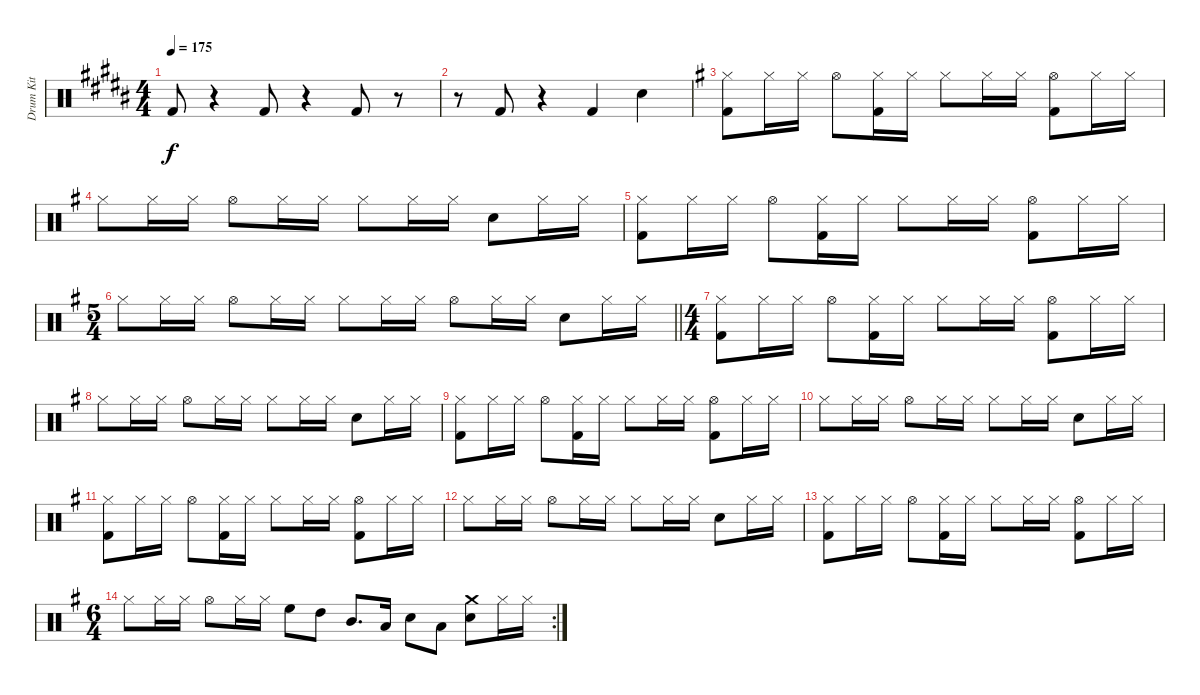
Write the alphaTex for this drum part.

\track ("Drum Kit" "Drum Kit") {instrument percussion}
\staff {score}
\articulation defaults
\ts (4 4)
\tempo 175
\clef neutral
\ks g#minor "Kick (hit) 2".8{dy f}
r.4 "Kick (hit) 2".8 r.4 "Kick (hit) 2".8 r.8 |
\ks b
r.8 "Kick (hit) 2".8 r.4 "Kick (hit) 2".4 "Snare (hit) 2".4 |
\ks g
("Hi-Hat (closed)" "Kick (hit) 2").8 "Hi-Hat (closed)".16 "Hi-Hat (closed)".16 "Hi-Hat (open)".8 ("Hi-Hat (closed)" "Kick (hit) 2").16 "Hi-Hat (closed)".16 "Hi-Hat (closed)".8 "Hi-Hat (closed)".16 "Hi-Hat (closed)".16 ("Hi-Hat (open)" "Kick (hit) 2").8 "Hi-Hat (closed)".16 "Hi-Hat (closed)".16 |
"Hi-Hat (closed)".8 "Hi-Hat (closed)".16 "Hi-Hat (closed)".16 "Hi-Hat (open)".8 "Hi-Hat (closed)".16 "Hi-Hat (closed)".16 "Hi-Hat (closed)".8 "Hi-Hat (closed)".16 "Hi-Hat (closed)".16 "Snare (hit) 2".8 "Hi-Hat (closed)".16 "Hi-Hat (closed)".16 |
("Hi-Hat (closed)" "Kick (hit) 2").8 "Hi-Hat (closed)".16 "Hi-Hat (closed)".16 "Hi-Hat (open)".8 ("Hi-Hat (closed)" "Kick (hit) 2").16 "Hi-Hat (closed)".16 "Hi-Hat (closed)".8 "Hi-Hat (closed)".16 "Hi-Hat (closed)".16 ("Hi-Hat (open)" "Kick (hit) 2").8 "Hi-Hat (closed)".16 "Hi-Hat (closed)".16 |
\ts (5 4)
\barLineRight lightlight "Hi-Hat (closed)".8 "Hi-Hat (closed)".16 "Hi-Hat (closed)".16 "Hi-Hat (open)".8 "Hi-Hat (closed)".16 "Hi-Hat (closed)".16 "Hi-Hat (closed)".8 "Hi-Hat (closed)".16 "Hi-Hat (closed)".16 "Hi-Hat (open)".8 "Hi-Hat (closed)".16 "Hi-Hat (closed)".16 "Snare (hit) 2".8 "Hi-Hat (closed)".16 "Hi-Hat (closed)".16
|
\ts (4 4)
("Hi-Hat (closed)" "Kick (hit) 2").8 "Hi-Hat (closed)".16 "Hi-Hat (closed)".16 "Hi-Hat (open)".8 ("Hi-Hat (closed)" "Kick (hit) 2").16 "Hi-Hat (closed)".16 "Hi-Hat (closed)".8 "Hi-Hat (closed)".16 "Hi-Hat (closed)".16 ("Hi-Hat (open)" "Kick (hit) 2").8 "Hi-Hat (closed)".16 "Hi-Hat (closed)".16 |
"Hi-Hat (closed)".8 "Hi-Hat (closed)".16 "Hi-Hat (closed)".16 "Hi-Hat (open)".8 "Hi-Hat (closed)".16 "Hi-Hat (closed)".16 "Hi-Hat (closed)".8 "Hi-Hat (closed)".16 "Hi-Hat (closed)".16 "Snare (hit) 2".8 "Hi-Hat (closed)".16 "Hi-Hat (closed)".16 |
("Hi-Hat (closed)" "Kick (hit) 2").8 "Hi-Hat (closed)".16 "Hi-Hat (closed)".16 "Hi-Hat (open)".8 ("Hi-Hat (closed)" "Kick (hit) 2").16 "Hi-Hat (closed)".16 "Hi-Hat (closed)".8 "Hi-Hat (closed)".16 "Hi-Hat (closed)".16 ("Hi-Hat (open)" "Kick (hit) 2").8 "Hi-Hat (closed)".16 "Hi-Hat (closed)".16 |
"Hi-Hat (closed)".8 "Hi-Hat (closed)".16 "Hi-Hat (closed)".16 "Hi-Hat (open)".8 "Hi-Hat (closed)".16 "Hi-Hat (closed)".16 "Hi-Hat (closed)".8 "Hi-Hat (closed)".16 "Hi-Hat (closed)".16 "Snare (hit) 2".8 "Hi-Hat (closed)".16 "Hi-Hat (closed)".16 |
("Hi-Hat (closed)" "Kick (hit) 2").8 "Hi-Hat (closed)".16 "Hi-Hat (closed)".16 "Hi-Hat (open)".8 ("Hi-Hat (closed)" "Kick (hit) 2").16 "Hi-Hat (closed)".16 "Hi-Hat (closed)".8 "Hi-Hat (closed)".16 "Hi-Hat (closed)".16 ("Hi-Hat (open)" "Kick (hit) 2").8 "Hi-Hat (closed)".16 "Hi-Hat (closed)".16 |
"Hi-Hat (closed)".8 "Hi-Hat (closed)".16 "Hi-Hat (closed)".16 "Hi-Hat (open)".8 "Hi-Hat (closed)".16 "Hi-Hat (closed)".16 "Hi-Hat (closed)".8 "Hi-Hat (closed)".16 "Hi-Hat (closed)".16 "Snare (hit) 2".8 "Hi-Hat (closed)".16 "Hi-Hat (closed)".16 |
("Hi-Hat (closed)" "Kick (hit) 2").8 "Hi-Hat (closed)".16 "Hi-Hat (closed)".16 "Hi-Hat (open)".8 ("Hi-Hat (closed)" "Kick (hit) 2").16 "Hi-Hat (closed)".16 "Hi-Hat (closed)".8 "Hi-Hat (closed)".16 "Hi-Hat (closed)".16 ("Hi-Hat (open)" "Kick (hit) 2").8 "Hi-Hat (closed)".16 "Hi-Hat (closed)".16 |
\rc 2
\ts (6 4)
"Hi-Hat (closed)".8 "Hi-Hat (closed)".16 "Hi-Hat (closed)".16 "Hi-Hat (open)".8 "Hi-Hat (closed)".16 "Hi-Hat (closed)".16 "High Floor Tom (hit)".8 "High Tom (hit)".8 "Mid Tom (hit)".8{d} "Low Tom (hit)".16 "Snare (hit) 2".8 "Low Tom (hit)".8 ("Crash medium (hit)" "Snare (hit) 2").8 "Hi-Hat (closed)".16 "Hi-Hat (closed)".16
